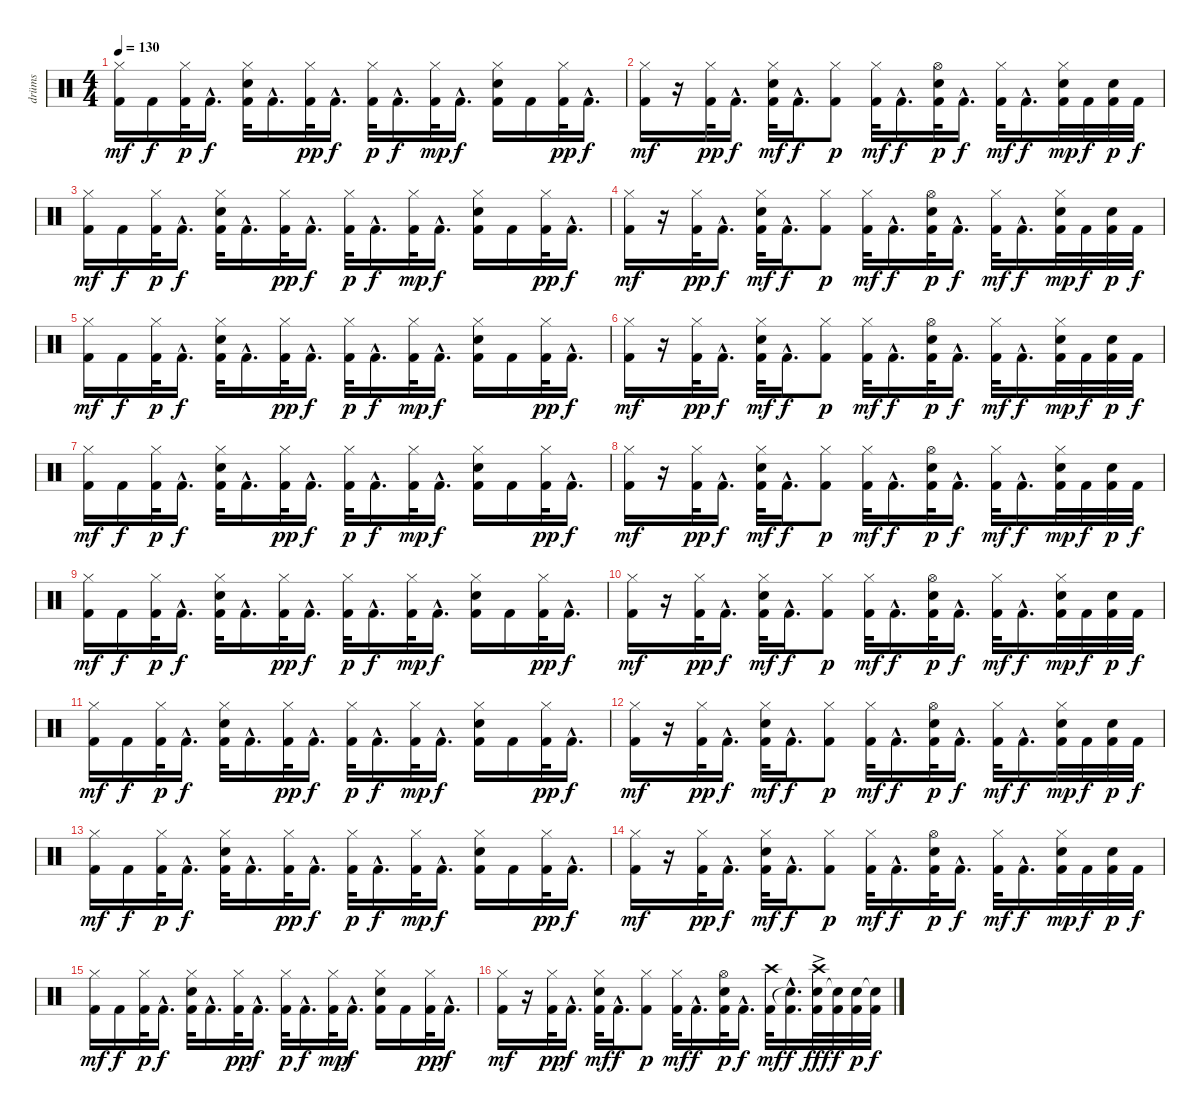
\track ("drüms" "drüms") {instrument percussion}
\staff {score}
\articulation defaults
\ts (4 4)
\tempo 130
\clef neutral
\ks c
("Kick (hit) 2" "Hi-Hat (closed)").16{dy mf} "Kick (hit) 2".16{dy f} ("Hi-Hat (closed)" "Kick (hit) 2").32{dy p} "Kick (hit) 2"{hac}.16{d dy f} ("Electric Snare (hit)" "Hi-Hat (closed)" "Kick (hit) 2").32 "Kick (hit) 2"{hac}.16{d} ("Kick (hit) 2" "Hi-Hat (closed)").32{dy pp} "Kick (hit) 2"{hac}.16{d dy f} ("Hi-Hat (closed)" "Kick (hit) 2").32{dy p} "Kick (hit) 2"{hac}.16{d dy f} ("Kick (hit) 2" "Hi-Hat (closed)").32{dy mp} "Kick (hit) 2"{hac}.16{d dy f} ("Electric Snare (hit)" "Hi-Hat (closed)" "Kick (hit) 2").16 "Kick (hit) 2".16 ("Hi-Hat (closed)" "Kick (hit) 2").32{dy pp} "Kick (hit) 2"{hac}.16{d dy f} |
("Kick (hit) 2" "Hi-Hat (closed)").16{dy mf} r.16 ("Hi-Hat (closed)" "Kick (hit) 2").32{dy pp} "Kick (hit) 2"{hac}.16{d dy f} ("Electric Snare (hit)" "Hi-Hat (closed)" "Kick (hit) 2").32{dy mf} "Kick (hit) 2"{hac}.16{d dy f} ("Kick (hit) 2" "Hi-Hat (closed)").8{dy p} ("Hi-Hat (closed)" "Kick (hit) 2").32{dy mf} "Kick (hit) 2"{hac}.16{d dy f} ("Electric Snare (hit)" "Hi-Hat (open)" "Kick (hit) 2").32{dy p} "Kick (hit) 2"{hac}.16{d dy f} ("Kick (hit) 2" "Hi-Hat (closed)").32{dy mf} "Kick (hit) 2"{hac}.16{d dy f} ("Electric Snare (hit)" "Hi-Hat (closed)" "Kick (hit) 2").32{dy mp} "Kick (hit) 2".32{dy f} ("Electric Snare (hit)" "Kick (hit) 2").32{dy p} "Kick (hit) 2".32{dy f} |
("Kick (hit) 2" "Hi-Hat (closed)").16{dy mf} "Kick (hit) 2".16{dy f} ("Hi-Hat (closed)" "Kick (hit) 2").32{dy p} "Kick (hit) 2"{hac}.16{d dy f} ("Electric Snare (hit)" "Hi-Hat (closed)" "Kick (hit) 2").32 "Kick (hit) 2"{hac}.16{d} ("Kick (hit) 2" "Hi-Hat (closed)").32{dy pp} "Kick (hit) 2"{hac}.16{d dy f} ("Hi-Hat (closed)" "Kick (hit) 2").32{dy p} "Kick (hit) 2"{hac}.16{d dy f} ("Kick (hit) 2" "Hi-Hat (closed)").32{dy mp} "Kick (hit) 2"{hac}.16{d dy f} ("Electric Snare (hit)" "Hi-Hat (closed)" "Kick (hit) 2").16 "Kick (hit) 2".16 ("Hi-Hat (closed)" "Kick (hit) 2").32{dy pp} "Kick (hit) 2"{hac}.16{d dy f} |
("Kick (hit) 2" "Hi-Hat (closed)").16{dy mf} r.16 ("Hi-Hat (closed)" "Kick (hit) 2").32{dy pp} "Kick (hit) 2"{hac}.16{d dy f} ("Electric Snare (hit)" "Hi-Hat (closed)" "Kick (hit) 2").32{dy mf} "Kick (hit) 2"{hac}.16{d dy f} ("Kick (hit) 2" "Hi-Hat (closed)").8{dy p} ("Hi-Hat (closed)" "Kick (hit) 2").32{dy mf} "Kick (hit) 2"{hac}.16{d dy f} ("Electric Snare (hit)" "Hi-Hat (open)" "Kick (hit) 2").32{dy p} "Kick (hit) 2"{hac}.16{d dy f} ("Kick (hit) 2" "Hi-Hat (closed)").32{dy mf} "Kick (hit) 2"{hac}.16{d dy f} ("Electric Snare (hit)" "Hi-Hat (closed)" "Kick (hit) 2").32{dy mp} "Kick (hit) 2".32{dy f} ("Electric Snare (hit)" "Kick (hit) 2").32{dy p} "Kick (hit) 2".32{dy f} |
("Kick (hit) 2" "Hi-Hat (closed)").16{dy mf} "Kick (hit) 2".16{dy f} ("Hi-Hat (closed)" "Kick (hit) 2").32{dy p} "Kick (hit) 2"{hac}.16{d dy f} ("Electric Snare (hit)" "Hi-Hat (closed)" "Kick (hit) 2").32 "Kick (hit) 2"{hac}.16{d} ("Kick (hit) 2" "Hi-Hat (closed)").32{dy pp} "Kick (hit) 2"{hac}.16{d dy f} ("Hi-Hat (closed)" "Kick (hit) 2").32{dy p} "Kick (hit) 2"{hac}.16{d dy f} ("Kick (hit) 2" "Hi-Hat (closed)").32{dy mp} "Kick (hit) 2"{hac}.16{d dy f} ("Electric Snare (hit)" "Hi-Hat (closed)" "Kick (hit) 2").16 "Kick (hit) 2".16 ("Hi-Hat (closed)" "Kick (hit) 2").32{dy pp} "Kick (hit) 2"{hac}.16{d dy f} |
("Kick (hit) 2" "Hi-Hat (closed)").16{dy mf} r.16 ("Hi-Hat (closed)" "Kick (hit) 2").32{dy pp} "Kick (hit) 2"{hac}.16{d dy f} ("Electric Snare (hit)" "Hi-Hat (closed)" "Kick (hit) 2").32{dy mf} "Kick (hit) 2"{hac}.16{d dy f} ("Kick (hit) 2" "Hi-Hat (closed)").8{dy p} ("Hi-Hat (closed)" "Kick (hit) 2").32{dy mf} "Kick (hit) 2"{hac}.16{d dy f} ("Electric Snare (hit)" "Hi-Hat (open)" "Kick (hit) 2").32{dy p} "Kick (hit) 2"{hac}.16{d dy f} ("Kick (hit) 2" "Hi-Hat (closed)").32{dy mf} "Kick (hit) 2"{hac}.16{d dy f} ("Electric Snare (hit)" "Hi-Hat (closed)" "Kick (hit) 2").32{dy mp} "Kick (hit) 2".32{dy f} ("Electric Snare (hit)" "Kick (hit) 2").32{dy p} "Kick (hit) 2".32{dy f} |
("Kick (hit) 2" "Hi-Hat (closed)").16{dy mf} "Kick (hit) 2".16{dy f} ("Hi-Hat (closed)" "Kick (hit) 2").32{dy p} "Kick (hit) 2"{hac}.16{d dy f} ("Electric Snare (hit)" "Hi-Hat (closed)" "Kick (hit) 2").32 "Kick (hit) 2"{hac}.16{d} ("Kick (hit) 2" "Hi-Hat (closed)").32{dy pp} "Kick (hit) 2"{hac}.16{d dy f} ("Hi-Hat (closed)" "Kick (hit) 2").32{dy p} "Kick (hit) 2"{hac}.16{d dy f} ("Kick (hit) 2" "Hi-Hat (closed)").32{dy mp} "Kick (hit) 2"{hac}.16{d dy f} ("Electric Snare (hit)" "Hi-Hat (closed)" "Kick (hit) 2").16 "Kick (hit) 2".16 ("Hi-Hat (closed)" "Kick (hit) 2").32{dy pp} "Kick (hit) 2"{hac}.16{d dy f} |
("Kick (hit) 2" "Hi-Hat (closed)").16{dy mf} r.16 ("Hi-Hat (closed)" "Kick (hit) 2").32{dy pp} "Kick (hit) 2"{hac}.16{d dy f} ("Electric Snare (hit)" "Hi-Hat (closed)" "Kick (hit) 2").32{dy mf} "Kick (hit) 2"{hac}.16{d dy f} ("Kick (hit) 2" "Hi-Hat (closed)").8{dy p} ("Hi-Hat (closed)" "Kick (hit) 2").32{dy mf} "Kick (hit) 2"{hac}.16{d dy f} ("Electric Snare (hit)" "Hi-Hat (open)" "Kick (hit) 2").32{dy p} "Kick (hit) 2"{hac}.16{d dy f} ("Kick (hit) 2" "Hi-Hat (closed)").32{dy mf} "Kick (hit) 2"{hac}.16{d dy f} ("Electric Snare (hit)" "Hi-Hat (closed)" "Kick (hit) 2").32{dy mp} "Kick (hit) 2".32{dy f} ("Electric Snare (hit)" "Kick (hit) 2").32{dy p} "Kick (hit) 2".32{dy f} |
("Kick (hit) 2" "Hi-Hat (closed)").16{dy mf} "Kick (hit) 2".16{dy f} ("Hi-Hat (closed)" "Kick (hit) 2").32{dy p} "Kick (hit) 2"{hac}.16{d dy f} ("Electric Snare (hit)" "Hi-Hat (closed)" "Kick (hit) 2").32 "Kick (hit) 2"{hac}.16{d} ("Kick (hit) 2" "Hi-Hat (closed)").32{dy pp} "Kick (hit) 2"{hac}.16{d dy f} ("Hi-Hat (closed)" "Kick (hit) 2").32{dy p} "Kick (hit) 2"{hac}.16{d dy f} ("Kick (hit) 2" "Hi-Hat (closed)").32{dy mp} "Kick (hit) 2"{hac}.16{d dy f} ("Electric Snare (hit)" "Hi-Hat (closed)" "Kick (hit) 2").16 "Kick (hit) 2".16 ("Hi-Hat (closed)" "Kick (hit) 2").32{dy pp} "Kick (hit) 2"{hac}.16{d dy f} |
("Kick (hit) 2" "Hi-Hat (closed)").16{dy mf} r.16 ("Hi-Hat (closed)" "Kick (hit) 2").32{dy pp} "Kick (hit) 2"{hac}.16{d dy f} ("Electric Snare (hit)" "Hi-Hat (closed)" "Kick (hit) 2").32{dy mf} "Kick (hit) 2"{hac}.16{d dy f} ("Kick (hit) 2" "Hi-Hat (closed)").8{dy p} ("Hi-Hat (closed)" "Kick (hit) 2").32{dy mf} "Kick (hit) 2"{hac}.16{d dy f} ("Electric Snare (hit)" "Hi-Hat (open)" "Kick (hit) 2").32{dy p} "Kick (hit) 2"{hac}.16{d dy f} ("Kick (hit) 2" "Hi-Hat (closed)").32{dy mf} "Kick (hit) 2"{hac}.16{d dy f} ("Electric Snare (hit)" "Hi-Hat (closed)" "Kick (hit) 2").32{dy mp} "Kick (hit) 2".32{dy f} ("Electric Snare (hit)" "Kick (hit) 2").32{dy p} "Kick (hit) 2".32{dy f} |
("Kick (hit) 2" "Hi-Hat (closed)").16{dy mf} "Kick (hit) 2".16{dy f} ("Hi-Hat (closed)" "Kick (hit) 2").32{dy p} "Kick (hit) 2"{hac}.16{d dy f} ("Electric Snare (hit)" "Hi-Hat (closed)" "Kick (hit) 2").32 "Kick (hit) 2"{hac}.16{d} ("Kick (hit) 2" "Hi-Hat (closed)").32{dy pp} "Kick (hit) 2"{hac}.16{d dy f} ("Hi-Hat (closed)" "Kick (hit) 2").32{dy p} "Kick (hit) 2"{hac}.16{d dy f} ("Kick (hit) 2" "Hi-Hat (closed)").32{dy mp} "Kick (hit) 2"{hac}.16{d dy f} ("Electric Snare (hit)" "Hi-Hat (closed)" "Kick (hit) 2").16 "Kick (hit) 2".16 ("Hi-Hat (closed)" "Kick (hit) 2").32{dy pp} "Kick (hit) 2"{hac}.16{d dy f} |
("Kick (hit) 2" "Hi-Hat (closed)").16{dy mf} r.16 ("Hi-Hat (closed)" "Kick (hit) 2").32{dy pp} "Kick (hit) 2"{hac}.16{d dy f} ("Electric Snare (hit)" "Hi-Hat (closed)" "Kick (hit) 2").32{dy mf} "Kick (hit) 2"{hac}.16{d dy f} ("Kick (hit) 2" "Hi-Hat (closed)").8{dy p} ("Hi-Hat (closed)" "Kick (hit) 2").32{dy mf} "Kick (hit) 2"{hac}.16{d dy f} ("Electric Snare (hit)" "Hi-Hat (open)" "Kick (hit) 2").32{dy p} "Kick (hit) 2"{hac}.16{d dy f} ("Kick (hit) 2" "Hi-Hat (closed)").32{dy mf} "Kick (hit) 2"{hac}.16{d dy f} ("Electric Snare (hit)" "Hi-Hat (closed)" "Kick (hit) 2").32{dy mp} "Kick (hit) 2".32{dy f} ("Electric Snare (hit)" "Kick (hit) 2").32{dy p} "Kick (hit) 2".32{dy f} |
("Kick (hit) 2" "Hi-Hat (closed)").16{dy mf} "Kick (hit) 2".16{dy f} ("Hi-Hat (closed)" "Kick (hit) 2").32{dy p} "Kick (hit) 2"{hac}.16{d dy f} ("Electric Snare (hit)" "Hi-Hat (closed)" "Kick (hit) 2").32 "Kick (hit) 2"{hac}.16{d} ("Kick (hit) 2" "Hi-Hat (closed)").32{dy pp} "Kick (hit) 2"{hac}.16{d dy f} ("Hi-Hat (closed)" "Kick (hit) 2").32{dy p} "Kick (hit) 2"{hac}.16{d dy f} ("Kick (hit) 2" "Hi-Hat (closed)").32{dy mp} "Kick (hit) 2"{hac}.16{d dy f} ("Electric Snare (hit)" "Hi-Hat (closed)" "Kick (hit) 2").16 "Kick (hit) 2".16 ("Hi-Hat (closed)" "Kick (hit) 2").32{dy pp} "Kick (hit) 2"{hac}.16{d dy f} |
("Kick (hit) 2" "Hi-Hat (closed)").16{dy mf} r.16 ("Hi-Hat (closed)" "Kick (hit) 2").32{dy pp} "Kick (hit) 2"{hac}.16{d dy f} ("Electric Snare (hit)" "Hi-Hat (closed)" "Kick (hit) 2").32{dy mf} "Kick (hit) 2"{hac}.16{d dy f} ("Kick (hit) 2" "Hi-Hat (closed)").8{dy p} ("Hi-Hat (closed)" "Kick (hit) 2").32{dy mf} "Kick (hit) 2"{hac}.16{d dy f} ("Electric Snare (hit)" "Hi-Hat (open)" "Kick (hit) 2").32{dy p} "Kick (hit) 2"{hac}.16{d dy f} ("Kick (hit) 2" "Hi-Hat (closed)").32{dy mf} "Kick (hit) 2"{hac}.16{d dy f} ("Electric Snare (hit)" "Hi-Hat (closed)" "Kick (hit) 2").32{dy mp} "Kick (hit) 2".32{dy f} ("Electric Snare (hit)" "Kick (hit) 2").32{dy p} "Kick (hit) 2".32{dy f} |
("Kick (hit) 2" "Hi-Hat (closed)").16{dy mf} "Kick (hit) 2".16{dy f} ("Hi-Hat (closed)" "Kick (hit) 2").32{dy p} "Kick (hit) 2"{hac}.16{d dy f} ("Electric Snare (hit)" "Hi-Hat (closed)" "Kick (hit) 2").32 "Kick (hit) 2"{hac}.16{d} ("Kick (hit) 2" "Hi-Hat (closed)").32{dy pp} "Kick (hit) 2"{hac}.16{d dy f} ("Hi-Hat (closed)" "Kick (hit) 2").32{dy p} "Kick (hit) 2"{hac}.16{d dy f} ("Kick (hit) 2" "Hi-Hat (closed)").32{dy mp} "Kick (hit) 2"{hac}.16{d dy f} ("Electric Snare (hit)" "Hi-Hat (closed)" "Kick (hit) 2").16 "Kick (hit) 2".16 ("Hi-Hat (closed)" "Kick (hit) 2").32{dy pp} "Kick (hit) 2"{hac}.16{d dy f} |
("Kick (hit) 2" "Hi-Hat (closed)").16{dy mf} r.16 ("Hi-Hat (closed)" "Kick (hit) 2").32{dy pp} "Kick (hit) 2"{hac}.16{d dy f} ("Electric Snare (hit)" "Hi-Hat (closed)" "Kick (hit) 2").32{dy mf} "Kick (hit) 2"{hac}.16{d dy f} ("Kick (hit) 2" "Hi-Hat (closed)").8{dy p} ("Hi-Hat (closed)" "Kick (hit) 2").32{dy mf} "Kick (hit) 2"{hac}.16{d dy f} ("Electric Snare (hit)" "Hi-Hat (open)" "Kick (hit) 2").32{dy p} "Kick (hit) 2"{hac}.16{d dy f} ("Kick (hit) 2" "Crash high (hit)").32{dy mf} ("Snare (hit)"{hac t} "Kick (hit) 2"{hac}).16{d dy f} ("Electric Snare (hit)" "Crash high (hit)"{ac} "Kick (hit) 2").32{dy fff} ("Snare (hit)"{t} "Kick (hit) 2").32{dy f} ("Electric Snare (hit)" "Kick (hit) 2").32{dy p} ("Snare (hit)"{t} "Kick (hit) 2").32{dy f}
